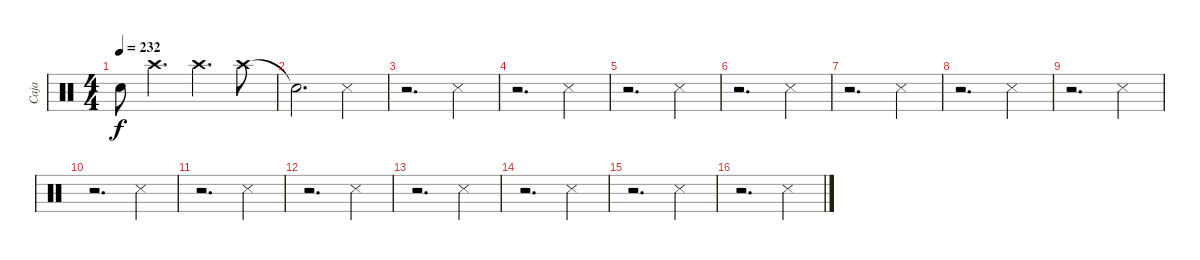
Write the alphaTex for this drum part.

\track ("Caja" "Caja") {instrument percussion}
\staff {score}
\articulation defaults
\ts (4 4)
\tempo 232
\clef neutral
\ks c "Snare (hit) 2".8{dy f} "Crash high (hit)".4{d} "Crash high (hit)".4{d} "Crash high (hit)".8
|
"Snare (hit)"{t}.2{d} "Snare (side stick) 3".4 |
r.2{d} "Snare (side stick) 3".4 |
r.2{d} "Snare (side stick) 3".4 |
r.2{d} "Snare (side stick) 3".4 |
r.2{d} "Snare (side stick) 3".4 |
r.2{d} "Snare (side stick) 3".4 |
r.2{d} "Snare (side stick) 3".4 |
r.2{d} "Snare (side stick) 3".4 |
r.2{d} "Snare (side stick) 3".4 |
r.2{d} "Snare (side stick) 3".4 |
r.2{d} "Snare (side stick) 3".4 |
r.2{d} "Snare (side stick) 3".4 |
r.2{d} "Snare (side stick) 3".4 |
r.2{d} "Snare (side stick) 3".4 |
r.2{d} "Snare (side stick) 3".4
